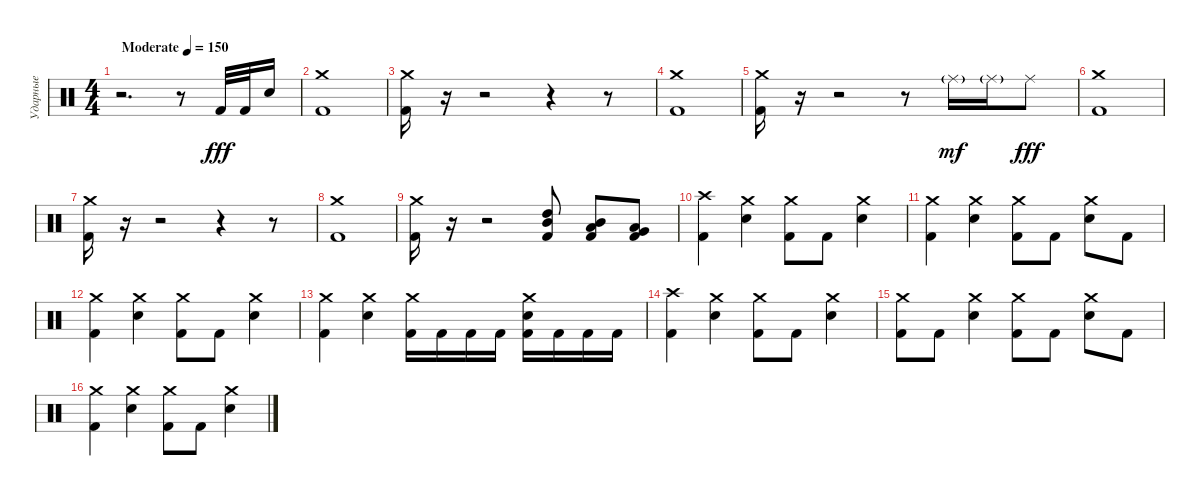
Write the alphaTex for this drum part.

\track ("Ударные" "Ударные") {instrument percussion}
\staff {score}
\articulation defaults
\ts (4 4)
\tempo (150 "Moderate")
\clef neutral
\ks c
r.2{d dy fff} r.8 "Kick (hit) 2".32 "Kick (hit) 2".32 "Electric Snare (hit)".16 |
("Crash medium (hit)" "Kick (hit) 2").1 |
("Crash medium (hit)" "Kick (hit) 2").16 r.16 r.2 r.4 r.8 |
("Crash medium (hit)" "Kick (hit) 2").1 |
("Crash medium (hit)" "Kick (hit) 2").16 r.16 r.2 r.8 "Ride (middle)"{g}.16{dy mf} "Ride (middle)"{g}.16 "Ride (middle)".8{dy fff} |
("Crash medium (hit)" "Kick (hit) 2").1 |
("Crash medium (hit)" "Kick (hit) 2").16 r.16 r.2 r.4 r.8 |
("Crash medium (hit)" "Kick (hit) 2").1 |
("Crash medium (hit)" "Kick (hit) 2").16 r.16 r.2 ("High Tom (hit)" "Mid Tom (hit)" "Kick (hit) 2").8 ("Mid Tom (hit)" "Low Tom (hit)" "Kick (hit) 2").8 ("Low Tom (hit)" "Very Low Tom (hit)" "Kick (hit) 2").8 |
("Crash high (hit)" "Kick (hit) 2").4 ("Crash medium (hit)" "Electric Snare (hit)").4 ("Crash medium (hit)" "Kick (hit) 2").8 "Kick (hit) 2".8 ("Crash medium (hit)" "Electric Snare (hit)").4 |
("Crash medium (hit)" "Kick (hit) 2").4 ("Crash medium (hit)" "Electric Snare (hit)").4 ("Crash medium (hit)" "Kick (hit) 2").8 "Kick (hit) 2".8 ("Crash medium (hit)" "Electric Snare (hit)").8 "Kick (hit) 2".8 |
("Crash medium (hit)" "Kick (hit) 2").4 ("Crash medium (hit)" "Electric Snare (hit)").4 ("Crash medium (hit)" "Kick (hit) 2").8 "Kick (hit) 2".8 ("Crash medium (hit)" "Electric Snare (hit)").4 |
("Crash medium (hit)" "Kick (hit) 2").4 ("Crash medium (hit)" "Electric Snare (hit)").4 ("Crash medium (hit)" "Kick (hit) 2").16 "Kick (hit) 2".16 "Kick (hit) 2".16 "Kick (hit) 2".16 ("Crash medium (hit)" "Electric Snare (hit)" "Kick (hit) 2").16 "Kick (hit) 2".16 "Kick (hit) 2".16 "Kick (hit) 2".16 |
("Crash high (hit)" "Kick (hit) 2").4 ("Crash medium (hit)" "Electric Snare (hit)").4 ("Crash medium (hit)" "Kick (hit) 2").8 "Kick (hit) 2".8 ("Crash medium (hit)" "Electric Snare (hit)").4 |
("Crash medium (hit)" "Kick (hit) 2").8 "Kick (hit) 2".8 ("Crash medium (hit)" "Electric Snare (hit)").4 ("Crash medium (hit)" "Kick (hit) 2").8 "Kick (hit) 2".8 ("Crash medium (hit)" "Electric Snare (hit)").8 "Kick (hit) 2".8 |
("Crash medium (hit)" "Kick (hit) 2").4 ("Crash medium (hit)" "Electric Snare (hit)").4 ("Crash medium (hit)" "Kick (hit) 2").8 "Kick (hit) 2".8 ("Crash medium (hit)" "Electric Snare (hit)").4
